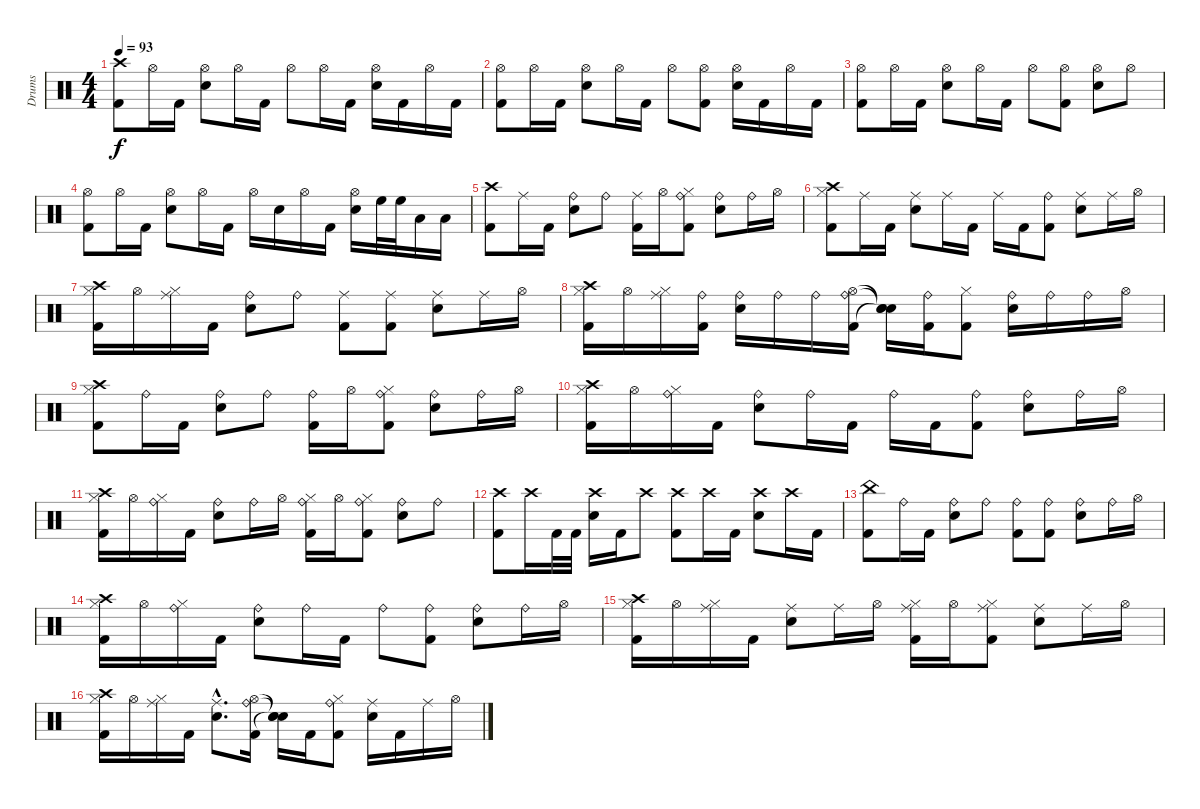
\track ("Drums" "Drums") {instrument percussion}
\staff {score}
\articulation defaults
\ts (4 4)
\tempo 93
\clef neutral
\ks c
("Crash high (hit)" "Kick (hit) 2").8{dy f} "Hi-Hat (open)".16 "Kick (hit) 2".16 ("Hi-Hat (open)" "Electric Snare (hit)").8 "Hi-Hat (open)".16 "Kick (hit) 2".16 "Hi-Hat (open)".8 "Hi-Hat (open)".16 "Kick (hit) 2".16 ("Hi-Hat (open)" "Electric Snare (hit)").16 "Kick (hit) 2".16 "Hi-Hat (open)".16 "Kick (hit) 2".16 |
("Hi-Hat (open)" "Kick (hit) 2").8 "Hi-Hat (open)".16 "Kick (hit) 2".16 ("Hi-Hat (open)" "Electric Snare (hit)").8 "Hi-Hat (open)".16 "Kick (hit) 2".16 "Hi-Hat (open)".8 ("Hi-Hat (open)" "Kick (hit) 2").8 ("Hi-Hat (open)" "Electric Snare (hit)").16 "Kick (hit) 2".16 "Hi-Hat (open)".16 "Kick (hit) 2".16 |
("Hi-Hat (open)" "Kick (hit) 2").8 "Hi-Hat (open)".16 "Kick (hit) 2".16 ("Hi-Hat (open)" "Electric Snare (hit)").8 "Hi-Hat (open)".16 "Kick (hit) 2".16 "Hi-Hat (open)".8 ("Hi-Hat (open)" "Kick (hit) 2").8 ("Hi-Hat (open)" "Electric Snare (hit)").8 "Hi-Hat (open)".8 |
("Hi-Hat (open)" "Kick (hit) 2").8 "Hi-Hat (open)".16 "Kick (hit) 2".16 ("Hi-Hat (open)" "Electric Snare (hit)").8 "Hi-Hat (open)".16 "Kick (hit) 2".16 "Hi-Hat (open)".16 "Electric Snare (hit)".16 "Hi-Hat (open)".16 "Kick (hit) 2".16 ("Hi-Hat (open)" "Electric Snare (hit)").16 "High Floor Tom (hit)".32 "High Floor Tom (hit)".32 "Low Tom (hit)".16 "Low Floor Tom (hit)".16 |
("Crash high (hit)" "Kick (hit) 2").8 "Ride (middle)".16 "Kick (hit) 2".16 ("Ride (bell)" "Electric Snare (hit)").8 "Ride (bell)".8 ("Ride (middle)" "Kick (hit) 2").16 "Hi-Hat (open)".16 ("Ride (bell)" "Hi-Hat (closed)" "Kick (hit) 2").8 ("Ride (bell)" "Electric Snare (hit)").8 "Ride (bell)".16 "Hi-Hat (open)".16 |
("Crash high (hit)" "Hi-Hat (closed)" "Kick (hit) 2").8 "Ride (middle)".16 "Kick (hit) 2".16 ("Ride (middle)" "Electric Snare (hit)").8 "Ride (middle)".16 "Kick (hit) 2".16 "Ride (middle)".16 "Kick (hit) 2".16 ("Ride (bell)" "Kick (hit) 2").8 ("Ride (middle)" "Electric Snare (hit)").8 "Ride (middle)".16 "Hi-Hat (open)".16 |
("Crash high (hit)" "Hi-Hat (closed)" "Kick (hit) 2").16 "Hi-Hat (open)".16 ("Ride (middle)" "Hi-Hat (closed)").16 "Kick (hit) 2".16 ("Ride (bell)" "Electric Snare (hit)").8 "Ride (bell)".8 ("Ride (middle)" "Kick (hit) 2").8 ("Ride (middle)" "Kick (hit) 2").8 ("Ride (middle)" "Electric Snare (hit)").8 "Ride (middle)".16 "Hi-Hat (open)".16 |
("Crash high (hit)" "Hi-Hat (closed)" "Kick (hit) 2").16 "Hi-Hat (open)".16 ("Ride (middle)" "Hi-Hat (closed)").16 ("Ride (bell)" "Kick (hit) 2").16 ("Ride (bell)" "Electric Snare (hit)").16 "Ride (bell)".16 "Ride (bell)".16 ("Ride (bell)" "Hi-Hat (open)" "Kick (hit) 2").16 ("Snare (hit)"{t} "Snare (hit)"{t} "Snare (hit)"{t}).16 ("Ride (bell)" "Kick (hit) 2").16 ("Hi-Hat (closed)" "Kick (hit) 2").8 ("Ride (bell)" "Electric Snare (hit)").16 "Ride (bell)".16 "Ride (bell)".16 "Hi-Hat (open)".16 |
("Crash high (hit)" "Hi-Hat (closed)" "Kick (hit) 2").8 "Ride (bell)".16 "Kick (hit) 2".16 ("Ride (bell)" "Electric Snare (hit)").8 "Ride (bell)".8 ("Ride (bell)" "Kick (hit) 2").16 "Hi-Hat (open)".16 ("Ride (bell)" "Hi-Hat (closed)" "Kick (hit) 2").8 ("Ride (bell)" "Electric Snare (hit)").8 "Ride (bell)".16 "Hi-Hat (open)".16 |
("Crash high (hit)" "Hi-Hat (closed)" "Kick (hit) 2").16 "Hi-Hat (open)".16 ("Ride (bell)" "Hi-Hat (closed)").16 "Kick (hit) 2".16 ("Ride (bell)" "Electric Snare (hit)").8 "Ride (bell)".16 "Kick (hit) 2".16 "Ride (bell)".16 "Kick (hit) 2".16 ("Ride (bell)" "Kick (hit) 2").8 ("Ride (bell)" "Electric Snare (hit)").8 "Ride (bell)".16 "Hi-Hat (open)".16 |
("Crash high (hit)" "Hi-Hat (closed)" "Kick (hit) 2").16 "Hi-Hat (open)".16 ("Ride (bell)" "Hi-Hat (closed)").16 "Kick (hit) 2".16 ("Ride (bell)" "Electric Snare (hit)").8 "Ride (bell)".16 "Hi-Hat (open)".16 ("Ride (bell)" "Hi-Hat (closed)" "Kick (hit) 2").16 "Hi-Hat (open)".16 ("Ride (bell)" "Hi-Hat (closed)" "Kick (hit) 2").8 ("Ride (bell)" "Electric Snare (hit)").8 "Ride (bell)".8 |
("Crash high (hit)" "Kick (hit) 2").8 "Crash high (hit)".16 "Kick (hit) 2".32 "Kick (hit) 2".32 ("Crash high (hit)" "Electric Snare (hit)").16 "Kick (hit) 2".16 "Crash high (hit)".8 ("Crash high (hit)" "Kick (hit) 2").8 "Crash high (hit)".16 "Kick (hit) 2".16 ("Crash high (hit)" "Electric Snare (hit)").8 "Crash high (hit)".16 "Kick (hit) 2".16 |
("China (hit)" "Kick (hit) 2").8 "Ride (bell)".16 "Kick (hit) 2".16 ("Ride (bell)" "Electric Snare (hit)").8 "Ride (bell)".8 ("Ride (bell)" "Kick (hit) 2").8 ("Ride (bell)" "Kick (hit) 2").8 ("Ride (bell)" "Electric Snare (hit)").8 "Ride (bell)".16 "Hi-Hat (open)".16 |
("Crash high (hit)" "Hi-Hat (closed)" "Kick (hit) 2").16 "Hi-Hat (open)".16 ("Ride (bell)" "Hi-Hat (closed)").16 "Kick (hit) 2".16 ("Ride (bell)" "Electric Snare (hit)").8 "Ride (bell)".16 "Kick (hit) 2".16 "Ride (bell)".8 ("Ride (bell)" "Kick (hit) 2").8 ("Ride (bell)" "Electric Snare (hit)").8 "Ride (bell)".16 "Hi-Hat (open)".16 |
("Crash high (hit)" "Hi-Hat (closed)" "Kick (hit) 2").16 "Hi-Hat (open)".16 ("Ride (middle)" "Hi-Hat (closed)").16 "Kick (hit) 2".16 ("Ride (middle)" "Electric Snare (hit)").8 "Ride (middle)".16 "Hi-Hat (open)".16 ("Ride (middle)" "Hi-Hat (closed)" "Kick (hit) 2").16 "Hi-Hat (open)".16 ("Ride (middle)" "Hi-Hat (closed)" "Kick (hit) 2").8 ("Ride (middle)" "Electric Snare (hit)").8 "Ride (middle)".16 "Hi-Hat (open)".16 |
("Crash high (hit)" "Hi-Hat (closed)" "Kick (hit) 2").16 "Hi-Hat (open)".16 ("Ride (middle)" "Hi-Hat (closed)").16 "Kick (hit) 2".16 ("Ride (middle)"{hac} "Electric Snare (hit)"{hac}).8{d} ("Ride (bell)" "Hi-Hat (open)" "Kick (hit) 2").16 ("Snare (hit)"{t} "Snare (hit)"{t} "Snare (hit)"{t}).16 "Kick (hit) 2".16 ("Ride (bell)" "Hi-Hat (closed)" "Kick (hit) 2").8 ("Ride (middle)" "Electric Snare (hit)").16 "Kick (hit) 2".16 "Ride (middle)".16 "Hi-Hat (open)".16
